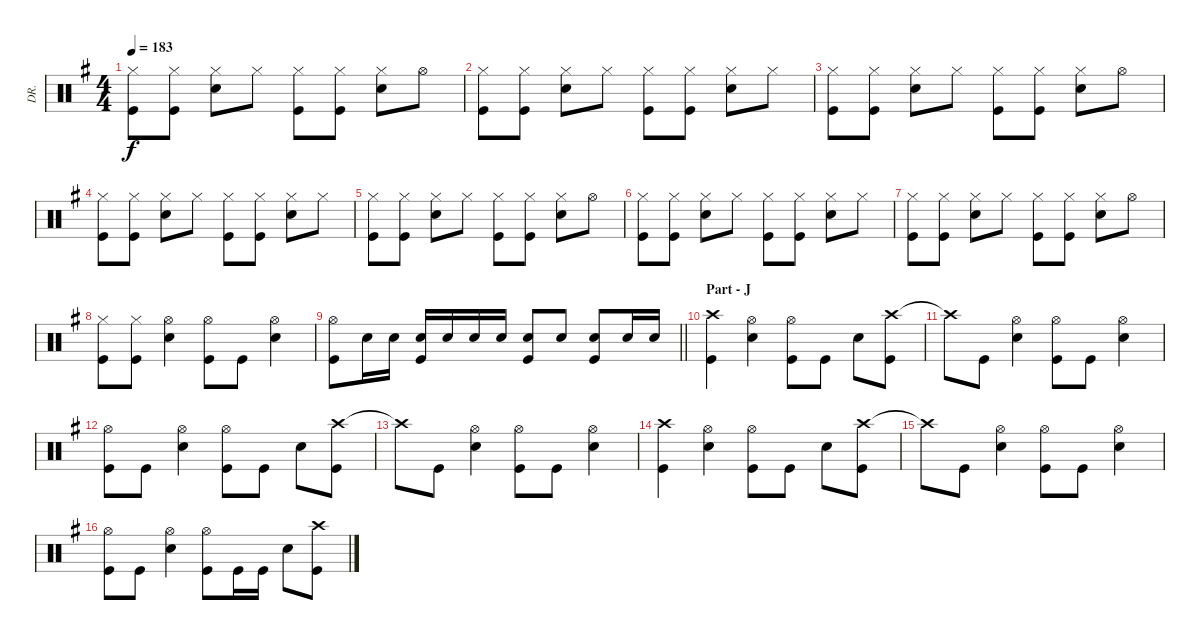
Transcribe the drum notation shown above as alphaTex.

\track ("DR." "DR.") {instrument percussion}
\staff {score}
\articulation defaults
\ts (4 4)
\tempo 183
\clef neutral
\ks g
("Hi-Hat (closed)" "Kick (hit)").8{dy f} ("Hi-Hat (closed)" "Kick (hit)").8 ("Hi-Hat (closed)" "Snare (hit) 2").8 "Hi-Hat (closed)".8 ("Hi-Hat (closed)" "Kick (hit)").8 ("Hi-Hat (closed)" "Kick (hit)").8 ("Hi-Hat (closed)" "Snare (hit) 2").8 "Hi-Hat (open)".8 |
("Hi-Hat (closed)" "Kick (hit)").8 ("Hi-Hat (closed)" "Kick (hit)").8 ("Hi-Hat (closed)" "Snare (hit) 2").8 "Hi-Hat (closed)".8 ("Hi-Hat (closed)" "Kick (hit)").8 ("Hi-Hat (closed)" "Kick (hit)").8 ("Hi-Hat (closed)" "Snare (hit) 2").8 "Hi-Hat (closed)".8 |
("Hi-Hat (closed)" "Kick (hit)").8 ("Hi-Hat (closed)" "Kick (hit)").8 ("Hi-Hat (closed)" "Snare (hit) 2").8 "Hi-Hat (closed)".8 ("Hi-Hat (closed)" "Kick (hit)").8 ("Hi-Hat (closed)" "Kick (hit)").8 ("Hi-Hat (closed)" "Snare (hit) 2").8 "Hi-Hat (open)".8 |
("Hi-Hat (closed)" "Kick (hit)").8 ("Hi-Hat (closed)" "Kick (hit)").8 ("Hi-Hat (closed)" "Snare (hit) 2").8 "Hi-Hat (closed)".8 ("Hi-Hat (closed)" "Kick (hit)").8 ("Hi-Hat (closed)" "Kick (hit)").8 ("Hi-Hat (closed)" "Snare (hit) 2").8 "Hi-Hat (closed)".8 |
("Hi-Hat (closed)" "Kick (hit)").8 ("Hi-Hat (closed)" "Kick (hit)").8 ("Hi-Hat (closed)" "Snare (hit) 2").8 "Hi-Hat (closed)".8 ("Hi-Hat (closed)" "Kick (hit)").8 ("Hi-Hat (closed)" "Kick (hit)").8 ("Hi-Hat (closed)" "Snare (hit) 2").8 "Hi-Hat (open)".8 |
("Hi-Hat (closed)" "Kick (hit)").8 ("Hi-Hat (closed)" "Kick (hit)").8 ("Hi-Hat (closed)" "Snare (hit) 2").8 "Hi-Hat (closed)".8 ("Hi-Hat (closed)" "Kick (hit)").8 ("Hi-Hat (closed)" "Kick (hit)").8 ("Hi-Hat (closed)" "Snare (hit) 2").8 "Hi-Hat (closed)".8 |
("Hi-Hat (closed)" "Kick (hit)").8 ("Hi-Hat (closed)" "Kick (hit)").8 ("Hi-Hat (closed)" "Snare (hit) 2").8 "Hi-Hat (closed)".8 ("Hi-Hat (closed)" "Kick (hit)").8 ("Hi-Hat (closed)" "Kick (hit)").8 ("Hi-Hat (closed)" "Snare (hit) 2").8 "Hi-Hat (open)".8 |
("Hi-Hat (closed)" "Kick (hit)").8 ("Hi-Hat (closed)" "Kick (hit)").8 ("Hi-Hat (open)" "Snare (hit) 2").4 ("Hi-Hat (open)" "Kick (hit)").8 "Kick (hit)".8 ("Hi-Hat (open)" "Snare (hit) 2").4 |
\barLineRight lightlight
("Hi-Hat (open)" "Kick (hit)").8 "Snare (hit) 2".16 "Snare (hit) 2".16 ("Snare (hit) 2" "Kick (hit)").16 "Snare (hit) 2".16 "Snare (hit) 2".16 "Snare (hit) 2".16 ("Snare (hit) 2" "Kick (hit)").8 "Snare (hit) 2".8 ("Snare (hit) 2" "Kick (hit)").8 "Snare (hit) 2".16 "Snare (hit) 2".16 |
\section ("" "Part - J")
("Crash high (hit)" "Kick (hit)").4 ("Hi-Hat (open)" "Snare (hit) 2").4 ("Hi-Hat (open)" "Kick (hit)").8 "Kick (hit)".8 "Snare (hit) 2".8 ("Crash high (hit)" "Kick (hit)").8 |
"Crash high (hit)"{t}.8 "Kick (hit)".8 ("Hi-Hat (open)" "Snare (hit) 2").4 ("Hi-Hat (open)" "Kick (hit)").8 "Kick (hit)".8 ("Hi-Hat (open)" "Snare (hit) 2").4 |
("Hi-Hat (open)" "Kick (hit)").8 "Kick (hit)".8 ("Hi-Hat (open)" "Snare (hit) 2").4 ("Hi-Hat (open)" "Kick (hit)").8 "Kick (hit)".8 "Snare (hit) 2".8 ("Crash high (hit)" "Kick (hit)").8 |
"Crash high (hit)"{t}.8 "Kick (hit)".8 ("Hi-Hat (open)" "Snare (hit) 2").4 ("Hi-Hat (open)" "Kick (hit)").8 "Kick (hit)".8 ("Hi-Hat (open)" "Snare (hit) 2").4 |
("Crash high (hit)" "Kick (hit)").4 ("Hi-Hat (open)" "Snare (hit) 2").4 ("Hi-Hat (open)" "Kick (hit)").8 "Kick (hit)".8 "Snare (hit) 2".8 ("Crash high (hit)" "Kick (hit)").8 |
"Crash high (hit)"{t}.8 "Kick (hit)".8 ("Hi-Hat (open)" "Snare (hit) 2").4 ("Hi-Hat (open)" "Kick (hit)").8 "Kick (hit)".8 ("Hi-Hat (open)" "Snare (hit) 2").4 |
("Hi-Hat (open)" "Kick (hit)").8 "Kick (hit)".8 ("Hi-Hat (open)" "Snare (hit) 2").4 ("Hi-Hat (open)" "Kick (hit)").8 "Kick (hit)".16 "Kick (hit)".16 "Snare (hit) 2".8 ("Crash high (hit)" "Kick (hit)").8
